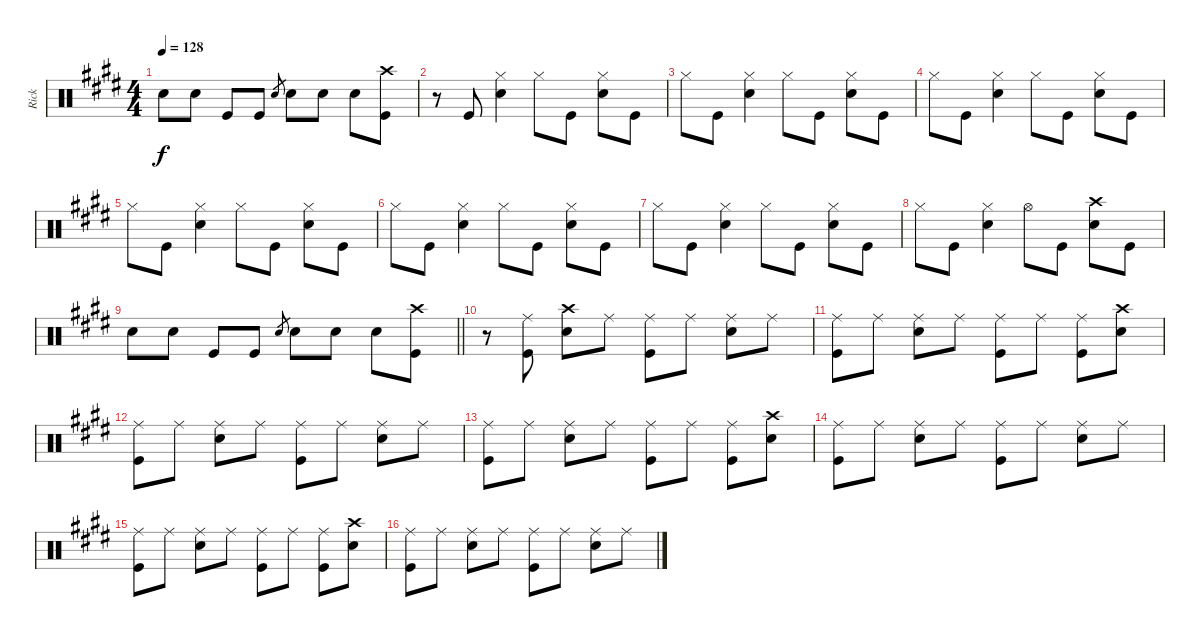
\track ("Rick" "Rick") {instrument percussion}
\staff {score}
\articulation defaults
\ts (4 4)
\tempo 128
\clef neutral
\ks c#minor "Snare (hit) 2".8{dy f} "Snare (hit) 2".8 "Kick (hit)".8 "Kick (hit)".8 "Snare (hit) 2".8{gr} "Snare (hit) 2".8 "Snare (hit) 2".8 "Snare (hit) 2".8
("Crash high (hit)" "Kick (hit)").8 |
r.8 "Kick (hit)".8 ("Hi-Hat (closed)" "Snare (hit) 2").4 "Hi-Hat (closed)".8 "Kick (hit)".8 ("Hi-Hat (closed)" "Snare (hit) 2").8 "Kick (hit)".8 |
"Hi-Hat (closed)".8 "Kick (hit)".8 ("Hi-Hat (closed)" "Snare (hit) 2").4 "Hi-Hat (closed)".8 "Kick (hit)".8 ("Hi-Hat (closed)" "Snare (hit) 2").8 "Kick (hit)".8 |
"Hi-Hat (closed)".8 "Kick (hit)".8 ("Hi-Hat (closed)" "Snare (hit) 2").4 "Hi-Hat (closed)".8 "Kick (hit)".8 ("Hi-Hat (closed)" "Snare (hit) 2").8 "Kick (hit)".8 |
"Hi-Hat (closed)".8 "Kick (hit)".8 ("Hi-Hat (closed)" "Snare (hit) 2").4 "Hi-Hat (closed)".8 "Kick (hit)".8 ("Hi-Hat (closed)" "Snare (hit) 2").8 "Kick (hit)".8 |
"Hi-Hat (closed)".8 "Kick (hit)".8 ("Hi-Hat (closed)" "Snare (hit) 2").4 "Hi-Hat (closed)".8 "Kick (hit)".8 ("Hi-Hat (closed)" "Snare (hit) 2").8 "Kick (hit)".8 |
"Hi-Hat (closed)".8 "Kick (hit)".8 ("Hi-Hat (closed)" "Snare (hit) 2").4 "Hi-Hat (closed)".8 "Kick (hit)".8 ("Hi-Hat (closed)" "Snare (hit) 2").8 "Kick (hit)".8 |
"Hi-Hat (closed)".8 "Kick (hit)".8 ("Hi-Hat (closed)" "Snare (hit) 2").4 "Hi-Hat (open)".8 "Kick (hit)".8 ("Crash high (hit)" "Snare (hit) 2").8 "Kick (hit)".8 |
\barLineRight lightlight "Snare (hit) 2".8 "Snare (hit) 2".8 "Kick (hit)".8 "Kick (hit)".8 "Snare (hit) 2".8{gr} "Snare (hit) 2".8 "Snare (hit) 2".8 "Snare (hit) 2".8
("Crash high (hit)" "Kick (hit)").8 |
r.8 ("Ride (middle)" "Kick (hit)").8 ("Crash high (hit)" "Snare (hit) 2").8 "Ride (middle)".8 ("Ride (middle)" "Kick (hit)").8 "Ride (middle)".8 ("Ride (middle)" "Snare (hit) 2").8 "Ride (middle)".8 |
("Ride (middle)" "Kick (hit)").8 "Ride (middle)".8 ("Ride (middle)" "Snare (hit) 2").8 "Ride (middle)".8 ("Ride (middle)" "Kick (hit)").8 "Ride (middle)".8 ("Ride (middle)" "Kick (hit)").8 ("Crash high (hit)" "Snare (hit) 2").8 |
("Ride (middle)" "Kick (hit)").8 "Ride (middle)".8 ("Ride (middle)" "Snare (hit) 2").8 "Ride (middle)".8 ("Ride (middle)" "Kick (hit)").8 "Ride (middle)".8 ("Ride (middle)" "Snare (hit) 2").8 "Ride (middle)".8 |
("Ride (middle)" "Kick (hit)").8 "Ride (middle)".8 ("Ride (middle)" "Snare (hit) 2").8 "Ride (middle)".8 ("Ride (middle)" "Kick (hit)").8 "Ride (middle)".8 ("Ride (middle)" "Kick (hit)").8 ("Crash high (hit)" "Snare (hit) 2").8 |
("Ride (middle)" "Kick (hit)").8 "Ride (middle)".8 ("Ride (middle)" "Snare (hit) 2").8 "Ride (middle)".8 ("Ride (middle)" "Kick (hit)").8 "Ride (middle)".8 ("Ride (middle)" "Snare (hit) 2").8 "Ride (middle)".8 |
("Ride (middle)" "Kick (hit)").8 "Ride (middle)".8 ("Ride (middle)" "Snare (hit) 2").8 "Ride (middle)".8 ("Ride (middle)" "Kick (hit)").8 "Ride (middle)".8 ("Ride (middle)" "Kick (hit)").8 ("Crash high (hit)" "Snare (hit) 2").8 |
("Ride (middle)" "Kick (hit)").8 "Ride (middle)".8 ("Ride (middle)" "Snare (hit) 2").8 "Ride (middle)".8 ("Ride (middle)" "Kick (hit)").8 "Ride (middle)".8 ("Ride (middle)" "Snare (hit) 2").8 "Ride (middle)".8
